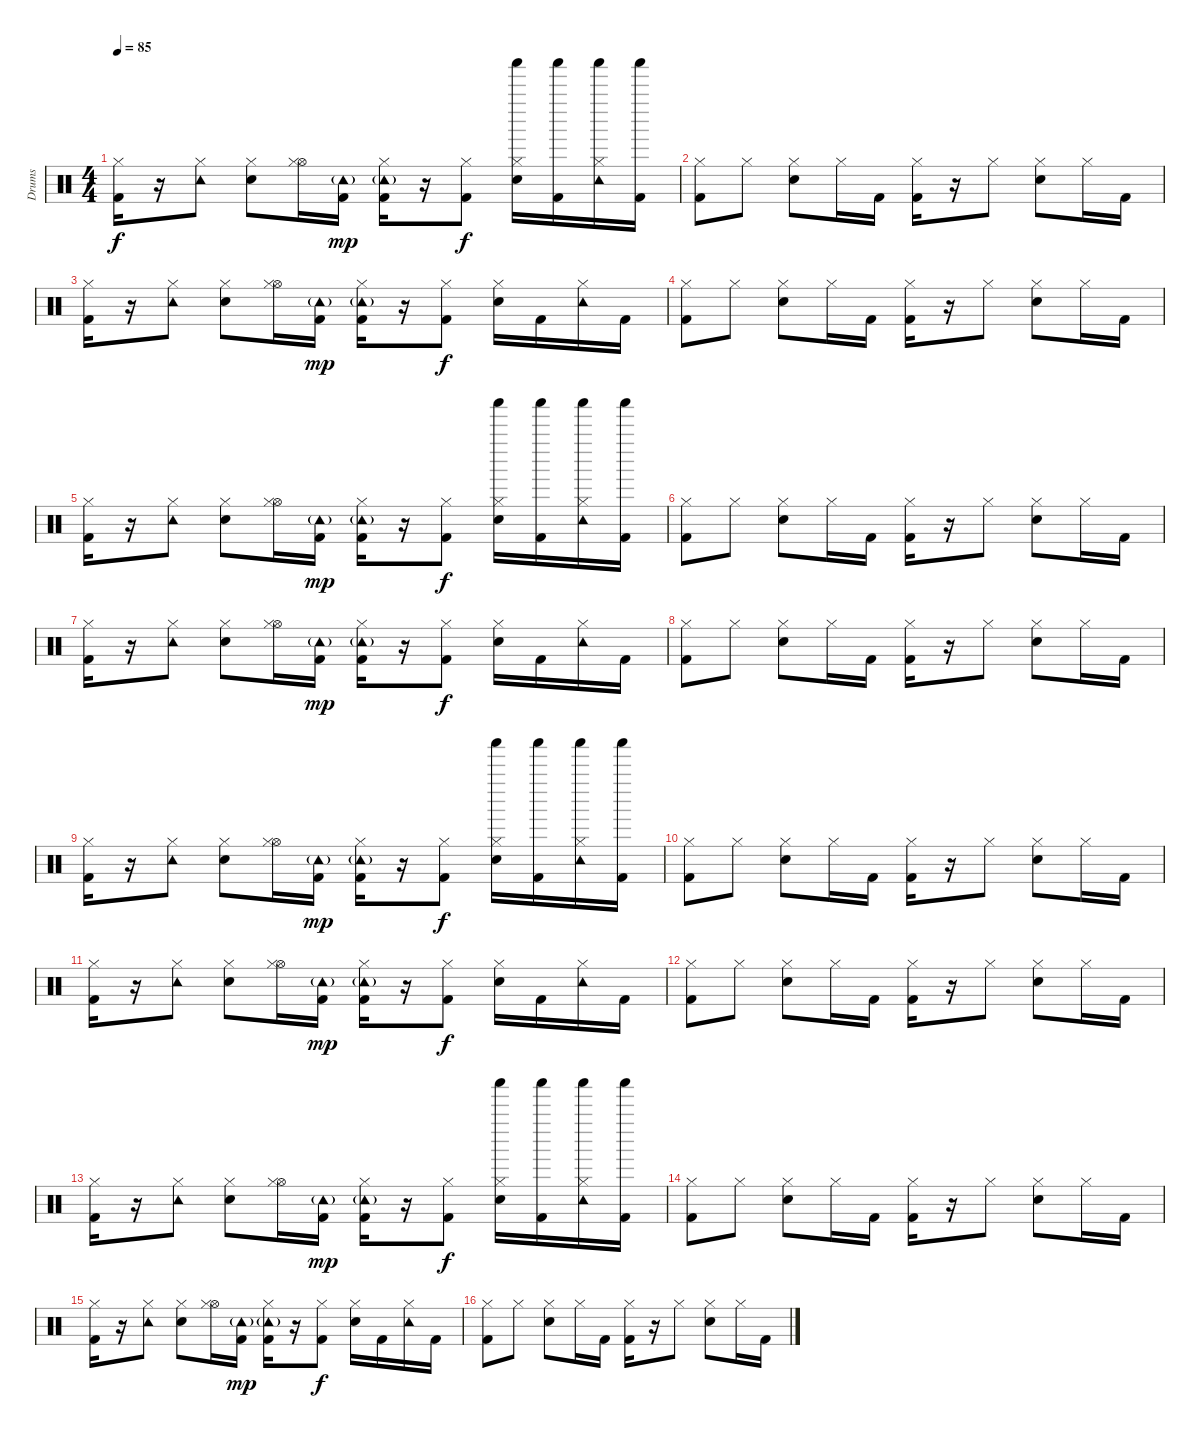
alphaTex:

\track ("Drums" "Drums") {instrument percussion}
\staff {score}
\articulation defaults
\ts (4 4)
\tempo 85
\clef neutral
\ks c
("Hi-Hat (closed)" "Kick (hit) 2").16{dy f} r.16 ("Tambourine (hit)" "Hi-Hat (closed)").8 ("Hi-Hat (closed)" "Snare (hit) 2").8 ("Hi-Hat (open)" "Hi-Hat (closed)").16 ("Tambourine (hit)"{g} "Kick (hit) 2").16{dy mp} ("Tambourine (hit)"{g} "Hi-Hat (closed)" "Kick (hit) 2").16 r.16 ("Hi-Hat (closed)" "Kick (hit) 2").8{dy f} ("Shaker (hit)" "Hi-Hat (closed)" "Snare (hit) 2").16 ("Shaker (hit)" "Kick (hit) 2").16 ("Tambourine (hit)" "Hi-Hat (closed)" "Shaker (hit)").16 ("Shaker (hit)" "Kick (hit) 2").16 |
("Hi-Hat (closed)" "Kick (hit) 2").8 "Hi-Hat (closed)".8 ("Hi-Hat (closed)" "Snare (hit) 2").8 "Hi-Hat (closed)".16 "Kick (hit) 2".16 ("Hi-Hat (closed)" "Kick (hit) 2").16 r.16 "Hi-Hat (closed)".8 ("Hi-Hat (closed)" "Snare (hit) 2").8 "Hi-Hat (closed)".16 "Kick (hit) 2".16 |
("Hi-Hat (closed)" "Kick (hit) 2").16 r.16 ("Tambourine (hit)" "Hi-Hat (closed)").8 ("Hi-Hat (closed)" "Snare (hit) 2").8 ("Hi-Hat (open)" "Hi-Hat (closed)").16 ("Tambourine (hit)"{g} "Kick (hit) 2").16{dy mp} ("Tambourine (hit)"{g} "Hi-Hat (closed)" "Kick (hit) 2").16 r.16 ("Hi-Hat (closed)" "Kick (hit) 2").8{dy f} ("Hi-Hat (closed)" "Snare (hit) 2").16 "Kick (hit) 2".16 ("Tambourine (hit)" "Hi-Hat (closed)").16 "Kick (hit) 2".16 |
("Hi-Hat (closed)" "Kick (hit) 2").8 "Hi-Hat (closed)".8 ("Hi-Hat (closed)" "Snare (hit) 2").8 "Hi-Hat (closed)".16 "Kick (hit) 2".16 ("Hi-Hat (closed)" "Kick (hit) 2").16 r.16 "Hi-Hat (closed)".8 ("Hi-Hat (closed)" "Snare (hit) 2").8 "Hi-Hat (closed)".16 "Kick (hit) 2".16 |
("Hi-Hat (closed)" "Kick (hit) 2").16 r.16 ("Tambourine (hit)" "Hi-Hat (closed)").8 ("Hi-Hat (closed)" "Snare (hit) 2").8 ("Hi-Hat (open)" "Hi-Hat (closed)").16 ("Tambourine (hit)"{g} "Kick (hit) 2").16{dy mp} ("Tambourine (hit)"{g} "Hi-Hat (closed)" "Kick (hit) 2").16 r.16 ("Hi-Hat (closed)" "Kick (hit) 2").8{dy f} ("Shaker (hit)" "Hi-Hat (closed)" "Snare (hit) 2").16 ("Shaker (hit)" "Kick (hit) 2").16 ("Tambourine (hit)" "Hi-Hat (closed)" "Shaker (hit)").16 ("Shaker (hit)" "Kick (hit) 2").16 |
("Hi-Hat (closed)" "Kick (hit) 2").8 "Hi-Hat (closed)".8 ("Hi-Hat (closed)" "Snare (hit) 2").8 "Hi-Hat (closed)".16 "Kick (hit) 2".16 ("Hi-Hat (closed)" "Kick (hit) 2").16 r.16 "Hi-Hat (closed)".8 ("Hi-Hat (closed)" "Snare (hit) 2").8 "Hi-Hat (closed)".16 "Kick (hit) 2".16 |
("Hi-Hat (closed)" "Kick (hit) 2").16 r.16 ("Tambourine (hit)" "Hi-Hat (closed)").8 ("Hi-Hat (closed)" "Snare (hit) 2").8 ("Hi-Hat (open)" "Hi-Hat (closed)").16 ("Tambourine (hit)"{g} "Kick (hit) 2").16{dy mp} ("Tambourine (hit)"{g} "Hi-Hat (closed)" "Kick (hit) 2").16 r.16 ("Hi-Hat (closed)" "Kick (hit) 2").8{dy f} ("Hi-Hat (closed)" "Snare (hit) 2").16 "Kick (hit) 2".16 ("Tambourine (hit)" "Hi-Hat (closed)").16 "Kick (hit) 2".16 |
("Hi-Hat (closed)" "Kick (hit) 2").8 "Hi-Hat (closed)".8 ("Hi-Hat (closed)" "Snare (hit) 2").8 "Hi-Hat (closed)".16 "Kick (hit) 2".16 ("Hi-Hat (closed)" "Kick (hit) 2").16 r.16 "Hi-Hat (closed)".8 ("Hi-Hat (closed)" "Snare (hit) 2").8 "Hi-Hat (closed)".16 "Kick (hit) 2".16 |
("Hi-Hat (closed)" "Kick (hit) 2").16 r.16 ("Tambourine (hit)" "Hi-Hat (closed)").8 ("Hi-Hat (closed)" "Snare (hit) 2").8 ("Hi-Hat (open)" "Hi-Hat (closed)").16 ("Tambourine (hit)"{g} "Kick (hit) 2").16{dy mp} ("Tambourine (hit)"{g} "Hi-Hat (closed)" "Kick (hit) 2").16 r.16 ("Hi-Hat (closed)" "Kick (hit) 2").8{dy f} ("Shaker (hit)" "Hi-Hat (closed)" "Snare (hit) 2").16 ("Shaker (hit)" "Kick (hit) 2").16 ("Tambourine (hit)" "Hi-Hat (closed)" "Shaker (hit)").16 ("Shaker (hit)" "Kick (hit) 2").16 |
("Hi-Hat (closed)" "Kick (hit) 2").8 "Hi-Hat (closed)".8 ("Hi-Hat (closed)" "Snare (hit) 2").8 "Hi-Hat (closed)".16 "Kick (hit) 2".16 ("Hi-Hat (closed)" "Kick (hit) 2").16 r.16 "Hi-Hat (closed)".8 ("Hi-Hat (closed)" "Snare (hit) 2").8 "Hi-Hat (closed)".16 "Kick (hit) 2".16 |
("Hi-Hat (closed)" "Kick (hit) 2").16 r.16 ("Tambourine (hit)" "Hi-Hat (closed)").8 ("Hi-Hat (closed)" "Snare (hit) 2").8 ("Hi-Hat (open)" "Hi-Hat (closed)").16 ("Tambourine (hit)"{g} "Kick (hit) 2").16{dy mp} ("Tambourine (hit)"{g} "Hi-Hat (closed)" "Kick (hit) 2").16 r.16 ("Hi-Hat (closed)" "Kick (hit) 2").8{dy f} ("Hi-Hat (closed)" "Snare (hit) 2").16 "Kick (hit) 2".16 ("Tambourine (hit)" "Hi-Hat (closed)").16 "Kick (hit) 2".16 |
("Hi-Hat (closed)" "Kick (hit) 2").8 "Hi-Hat (closed)".8 ("Hi-Hat (closed)" "Snare (hit) 2").8 "Hi-Hat (closed)".16 "Kick (hit) 2".16 ("Hi-Hat (closed)" "Kick (hit) 2").16 r.16 "Hi-Hat (closed)".8 ("Hi-Hat (closed)" "Snare (hit) 2").8 "Hi-Hat (closed)".16 "Kick (hit) 2".16 |
("Hi-Hat (closed)" "Kick (hit) 2").16 r.16 ("Tambourine (hit)" "Hi-Hat (closed)").8 ("Hi-Hat (closed)" "Snare (hit) 2").8 ("Hi-Hat (open)" "Hi-Hat (closed)").16 ("Tambourine (hit)"{g} "Kick (hit) 2").16{dy mp} ("Tambourine (hit)"{g} "Hi-Hat (closed)" "Kick (hit) 2").16 r.16 ("Hi-Hat (closed)" "Kick (hit) 2").8{dy f} ("Shaker (hit)" "Hi-Hat (closed)" "Snare (hit) 2").16 ("Shaker (hit)" "Kick (hit) 2").16 ("Tambourine (hit)" "Hi-Hat (closed)" "Shaker (hit)").16 ("Shaker (hit)" "Kick (hit) 2").16 |
("Hi-Hat (closed)" "Kick (hit) 2").8 "Hi-Hat (closed)".8 ("Hi-Hat (closed)" "Snare (hit) 2").8 "Hi-Hat (closed)".16 "Kick (hit) 2".16 ("Hi-Hat (closed)" "Kick (hit) 2").16 r.16 "Hi-Hat (closed)".8 ("Hi-Hat (closed)" "Snare (hit) 2").8 "Hi-Hat (closed)".16 "Kick (hit) 2".16 |
("Hi-Hat (closed)" "Kick (hit) 2").16 r.16 ("Tambourine (hit)" "Hi-Hat (closed)").8 ("Hi-Hat (closed)" "Snare (hit) 2").8 ("Hi-Hat (open)" "Hi-Hat (closed)").16 ("Tambourine (hit)"{g} "Kick (hit) 2").16{dy mp} ("Tambourine (hit)"{g} "Hi-Hat (closed)" "Kick (hit) 2").16 r.16 ("Hi-Hat (closed)" "Kick (hit) 2").8{dy f} ("Hi-Hat (closed)" "Snare (hit) 2").16 "Kick (hit) 2".16 ("Tambourine (hit)" "Hi-Hat (closed)").16 "Kick (hit) 2".16 |
("Hi-Hat (closed)" "Kick (hit) 2").8 "Hi-Hat (closed)".8 ("Hi-Hat (closed)" "Snare (hit) 2").8 "Hi-Hat (closed)".16 "Kick (hit) 2".16 ("Hi-Hat (closed)" "Kick (hit) 2").16 r.16 "Hi-Hat (closed)".8 ("Hi-Hat (closed)" "Snare (hit) 2").8 "Hi-Hat (closed)".16 "Kick (hit) 2".16
